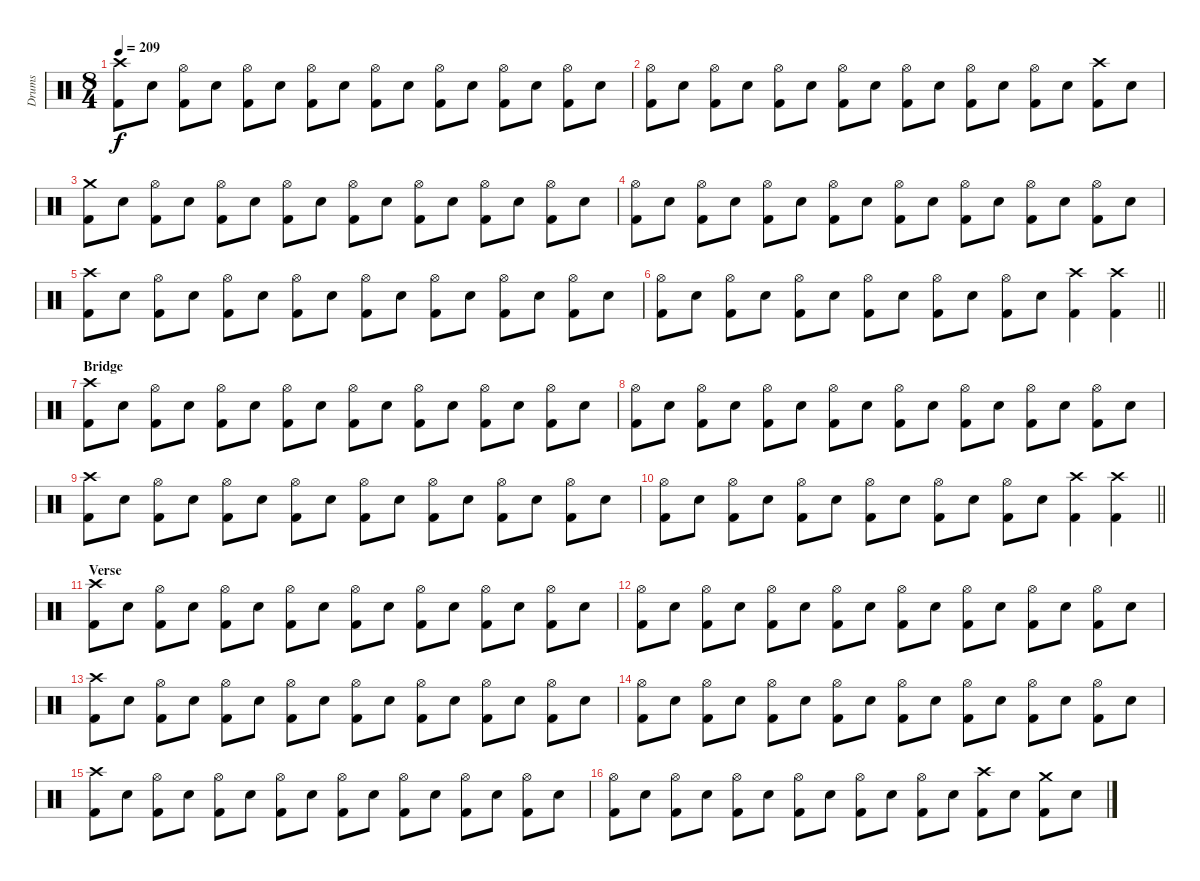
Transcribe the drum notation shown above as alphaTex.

\track ("Drums" "Drums") {instrument percussion}
\staff {score}
\articulation defaults
\ts (8 4)
\tempo 209
\clef neutral
\ks c
("Crash high (hit)" "Kick (hit) 2").8{dy f} "Snare (hit) 2".8 ("Hi-Hat (open)" "Kick (hit) 2").8 "Snare (hit) 2".8 ("Hi-Hat (open)" "Kick (hit) 2").8 "Snare (hit) 2".8 ("Hi-Hat (open)" "Kick (hit) 2").8 "Snare (hit) 2".8 ("Hi-Hat (open)" "Kick (hit) 2").8 "Snare (hit) 2".8 ("Hi-Hat (open)" "Kick (hit) 2").8 "Snare (hit) 2".8 ("Hi-Hat (open)" "Kick (hit) 2").8 "Snare (hit) 2".8 ("Hi-Hat (open)" "Kick (hit) 2").8 "Snare (hit) 2".8 |
("Hi-Hat (open)" "Kick (hit) 2").8 "Snare (hit) 2".8 ("Hi-Hat (open)" "Kick (hit) 2").8 "Snare (hit) 2".8 ("Hi-Hat (open)" "Kick (hit) 2").8 "Snare (hit) 2".8 ("Hi-Hat (open)" "Kick (hit) 2").8 "Snare (hit) 2".8 ("Hi-Hat (open)" "Kick (hit) 2").8 "Snare (hit) 2".8 ("Hi-Hat (open)" "Kick (hit) 2").8 "Snare (hit) 2".8 ("Hi-Hat (open)" "Kick (hit) 2").8 "Snare (hit) 2".8 ("Crash high (hit)" "Kick (hit) 2").8 "Snare (hit) 2".8 |
("Crash medium (hit)" "Kick (hit) 2").8 "Snare (hit) 2".8 ("Hi-Hat (open)" "Kick (hit) 2").8 "Snare (hit) 2".8 ("Hi-Hat (open)" "Kick (hit) 2").8 "Snare (hit) 2".8 ("Hi-Hat (open)" "Kick (hit) 2").8 "Snare (hit) 2".8 ("Hi-Hat (open)" "Kick (hit) 2").8 "Snare (hit) 2".8 ("Hi-Hat (open)" "Kick (hit) 2").8 "Snare (hit) 2".8 ("Hi-Hat (open)" "Kick (hit) 2").8 "Snare (hit) 2".8 ("Hi-Hat (open)" "Kick (hit) 2").8 "Snare (hit) 2".8 |
("Hi-Hat (open)" "Kick (hit) 2").8 "Snare (hit) 2".8 ("Hi-Hat (open)" "Kick (hit) 2").8 "Snare (hit) 2".8 ("Hi-Hat (open)" "Kick (hit) 2").8 "Snare (hit) 2".8 ("Hi-Hat (open)" "Kick (hit) 2").8 "Snare (hit) 2".8 ("Hi-Hat (open)" "Kick (hit) 2").8 "Snare (hit) 2".8 ("Hi-Hat (open)" "Kick (hit) 2").8 "Snare (hit) 2".8 ("Hi-Hat (open)" "Kick (hit) 2").8 "Snare (hit) 2".8 ("Hi-Hat (open)" "Kick (hit) 2").8 "Snare (hit) 2".8 |
("Crash high (hit)" "Kick (hit) 2").8 "Snare (hit) 2".8 ("Hi-Hat (open)" "Kick (hit) 2").8 "Snare (hit) 2".8 ("Hi-Hat (open)" "Kick (hit) 2").8 "Snare (hit) 2".8 ("Hi-Hat (open)" "Kick (hit) 2").8 "Snare (hit) 2".8 ("Hi-Hat (open)" "Kick (hit) 2").8 "Snare (hit) 2".8 ("Hi-Hat (open)" "Kick (hit) 2").8 "Snare (hit) 2".8 ("Hi-Hat (open)" "Kick (hit) 2").8 "Snare (hit) 2".8 ("Hi-Hat (open)" "Kick (hit) 2").8 "Snare (hit) 2".8 |
\barLineRight lightlight
("Hi-Hat (open)" "Kick (hit) 2").8 "Snare (hit) 2".8 ("Hi-Hat (open)" "Kick (hit) 2").8 "Snare (hit) 2".8 ("Hi-Hat (open)" "Kick (hit) 2").8 "Snare (hit) 2".8 ("Hi-Hat (open)" "Kick (hit) 2").8 "Snare (hit) 2".8 ("Hi-Hat (open)" "Kick (hit) 2").8 "Snare (hit) 2".8 ("Hi-Hat (open)" "Kick (hit) 2").8 "Snare (hit) 2".8 ("Crash high (hit)" "Kick (hit) 2").4 ("Crash high (hit)" "Kick (hit) 2").4 |
\section ("" "Bridge")
("Crash high (hit)" "Kick (hit) 2").8 "Snare (hit) 2".8 ("Hi-Hat (open)" "Kick (hit) 2").8 "Snare (hit) 2".8 ("Hi-Hat (open)" "Kick (hit) 2").8 "Snare (hit) 2".8 ("Hi-Hat (open)" "Kick (hit) 2").8 "Snare (hit) 2".8 ("Hi-Hat (open)" "Kick (hit) 2").8 "Snare (hit) 2".8 ("Hi-Hat (open)" "Kick (hit) 2").8 "Snare (hit) 2".8 ("Hi-Hat (open)" "Kick (hit) 2").8 "Snare (hit) 2".8 ("Hi-Hat (open)" "Kick (hit) 2").8 "Snare (hit) 2".8 |
("Hi-Hat (open)" "Kick (hit) 2").8 "Snare (hit) 2".8 ("Hi-Hat (open)" "Kick (hit) 2").8 "Snare (hit) 2".8 ("Hi-Hat (open)" "Kick (hit) 2").8 "Snare (hit) 2".8 ("Hi-Hat (open)" "Kick (hit) 2").8 "Snare (hit) 2".8 ("Hi-Hat (open)" "Kick (hit) 2").8 "Snare (hit) 2".8 ("Hi-Hat (open)" "Kick (hit) 2").8 "Snare (hit) 2".8 ("Hi-Hat (open)" "Kick (hit) 2").8 "Snare (hit) 2".8 ("Hi-Hat (open)" "Kick (hit) 2").8 "Snare (hit) 2".8 |
("Crash high (hit)" "Kick (hit) 2").8 "Snare (hit) 2".8 ("Hi-Hat (open)" "Kick (hit) 2").8 "Snare (hit) 2".8 ("Hi-Hat (open)" "Kick (hit) 2").8 "Snare (hit) 2".8 ("Hi-Hat (open)" "Kick (hit) 2").8 "Snare (hit) 2".8 ("Hi-Hat (open)" "Kick (hit) 2").8 "Snare (hit) 2".8 ("Hi-Hat (open)" "Kick (hit) 2").8 "Snare (hit) 2".8 ("Hi-Hat (open)" "Kick (hit) 2").8 "Snare (hit) 2".8 ("Hi-Hat (open)" "Kick (hit) 2").8 "Snare (hit) 2".8 |
\barLineRight lightlight
("Hi-Hat (open)" "Kick (hit) 2").8 "Snare (hit) 2".8 ("Hi-Hat (open)" "Kick (hit) 2").8 "Snare (hit) 2".8 ("Hi-Hat (open)" "Kick (hit) 2").8 "Snare (hit) 2".8 ("Hi-Hat (open)" "Kick (hit) 2").8 "Snare (hit) 2".8 ("Hi-Hat (open)" "Kick (hit) 2").8 "Snare (hit) 2".8 ("Hi-Hat (open)" "Kick (hit) 2").8 "Snare (hit) 2".8 ("Crash high (hit)" "Kick (hit) 2").4 ("Crash high (hit)" "Kick (hit) 2").4 |
\section ("" "Verse")
("Crash high (hit)" "Kick (hit) 2").8 "Snare (hit) 2".8 ("Hi-Hat (open)" "Kick (hit) 2").8 "Snare (hit) 2".8 ("Hi-Hat (open)" "Kick (hit) 2").8 "Snare (hit) 2".8 ("Hi-Hat (open)" "Kick (hit) 2").8 "Snare (hit) 2".8 ("Hi-Hat (open)" "Kick (hit) 2").8 "Snare (hit) 2".8 ("Hi-Hat (open)" "Kick (hit) 2").8 "Snare (hit) 2".8 ("Hi-Hat (open)" "Kick (hit) 2").8 "Snare (hit) 2".8 ("Hi-Hat (open)" "Kick (hit) 2").8 "Snare (hit) 2".8 |
("Hi-Hat (open)" "Kick (hit) 2").8 "Snare (hit) 2".8 ("Hi-Hat (open)" "Kick (hit) 2").8 "Snare (hit) 2".8 ("Hi-Hat (open)" "Kick (hit) 2").8 "Snare (hit) 2".8 ("Hi-Hat (open)" "Kick (hit) 2").8 "Snare (hit) 2".8 ("Hi-Hat (open)" "Kick (hit) 2").8 "Snare (hit) 2".8 ("Hi-Hat (open)" "Kick (hit) 2").8 "Snare (hit) 2".8 ("Hi-Hat (open)" "Kick (hit) 2").8 "Snare (hit) 2".8 ("Hi-Hat (open)" "Kick (hit) 2").8 "Snare (hit) 2".8 |
("Crash high (hit)" "Kick (hit) 2").8 "Snare (hit) 2".8 ("Hi-Hat (open)" "Kick (hit) 2").8 "Snare (hit) 2".8 ("Hi-Hat (open)" "Kick (hit) 2").8 "Snare (hit) 2".8 ("Hi-Hat (open)" "Kick (hit) 2").8 "Snare (hit) 2".8 ("Hi-Hat (open)" "Kick (hit) 2").8 "Snare (hit) 2".8 ("Hi-Hat (open)" "Kick (hit) 2").8 "Snare (hit) 2".8 ("Hi-Hat (open)" "Kick (hit) 2").8 "Snare (hit) 2".8 ("Hi-Hat (open)" "Kick (hit) 2").8 "Snare (hit) 2".8 |
("Hi-Hat (open)" "Kick (hit) 2").8 "Snare (hit) 2".8 ("Hi-Hat (open)" "Kick (hit) 2").8 "Snare (hit) 2".8 ("Hi-Hat (open)" "Kick (hit) 2").8 "Snare (hit) 2".8 ("Hi-Hat (open)" "Kick (hit) 2").8 "Snare (hit) 2".8 ("Hi-Hat (open)" "Kick (hit) 2").8 "Snare (hit) 2".8 ("Hi-Hat (open)" "Kick (hit) 2").8 "Snare (hit) 2".8 ("Hi-Hat (open)" "Kick (hit) 2").8 "Snare (hit) 2".8 ("Hi-Hat (open)" "Kick (hit) 2").8 "Snare (hit) 2".8 |
("Crash high (hit)" "Kick (hit) 2").8 "Snare (hit) 2".8 ("Hi-Hat (open)" "Kick (hit) 2").8 "Snare (hit) 2".8 ("Hi-Hat (open)" "Kick (hit) 2").8 "Snare (hit) 2".8 ("Hi-Hat (open)" "Kick (hit) 2").8 "Snare (hit) 2".8 ("Hi-Hat (open)" "Kick (hit) 2").8 "Snare (hit) 2".8 ("Hi-Hat (open)" "Kick (hit) 2").8 "Snare (hit) 2".8 ("Hi-Hat (open)" "Kick (hit) 2").8 "Snare (hit) 2".8 ("Hi-Hat (open)" "Kick (hit) 2").8 "Snare (hit) 2".8 |
("Hi-Hat (open)" "Kick (hit) 2").8 "Snare (hit) 2".8 ("Hi-Hat (open)" "Kick (hit) 2").8 "Snare (hit) 2".8 ("Hi-Hat (open)" "Kick (hit) 2").8 "Snare (hit) 2".8 ("Hi-Hat (open)" "Kick (hit) 2").8 "Snare (hit) 2".8 ("Hi-Hat (open)" "Kick (hit) 2").8 "Snare (hit) 2".8 ("Hi-Hat (open)" "Kick (hit) 2").8 "Snare (hit) 2".8 ("Crash high (hit)" "Kick (hit) 2").8 "Snare (hit) 2".8 ("Crash medium (hit)" "Kick (hit) 2").8 "Snare (hit) 2".8
